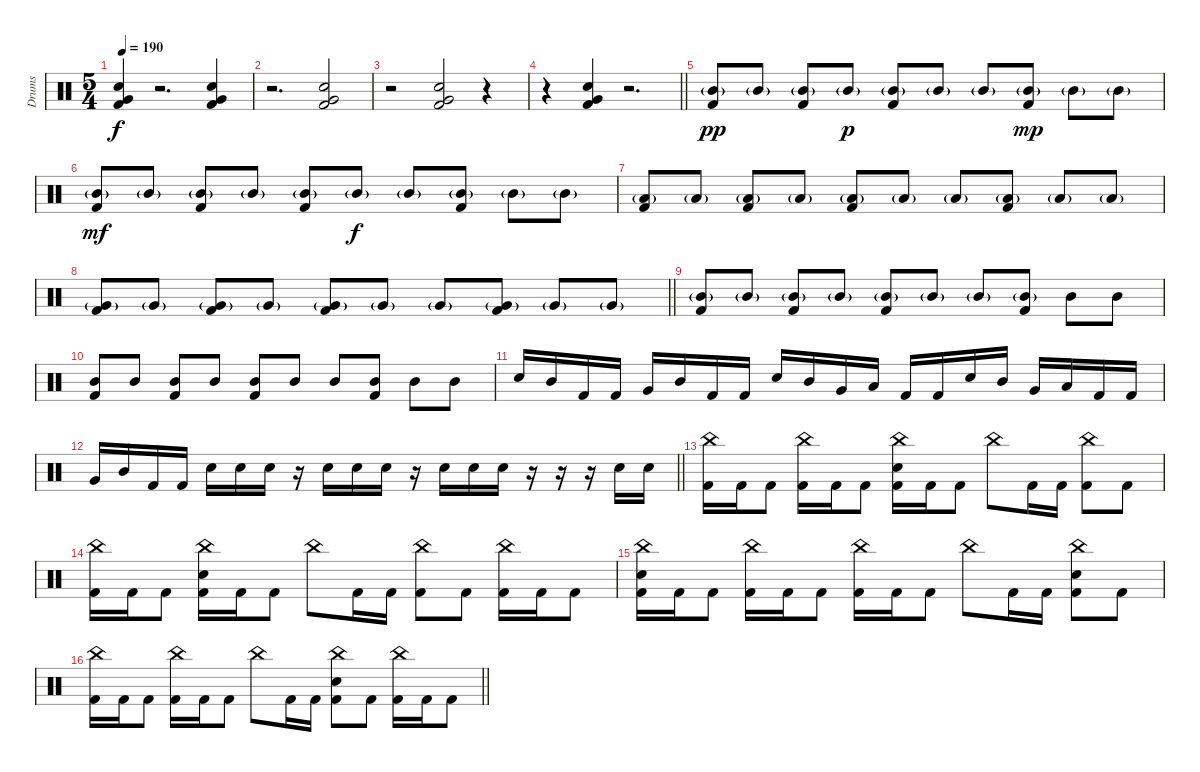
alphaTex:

\track ("Drums" "Drums") {instrument percussion}
\staff {score}
\articulation defaults
\ts (5 4)
\tempo 190
\clef neutral
\ks c
("Electric Snare (hit)" "Very Low Tom (hit)" "Kick (hit) 2").4{dy f} r.2{d} ("Electric Snare (hit)" "Very Low Tom (hit)" "Kick (hit) 2").4 |
r.2{d} ("Electric Snare (hit)" "Very Low Tom (hit)" "Kick (hit) 2").2 |
r.2 ("Electric Snare (hit)" "Very Low Tom (hit)" "Kick (hit) 2").2 r.4 |
\barLineRight lightlight
r.4 ("Electric Snare (hit)" "Very Low Tom (hit)" "Kick (hit) 2").4 r.2{d} |
("Mid Tom (hit)"{g} "Kick (hit) 2").8{dy pp volume 13} "Mid Tom (hit)"{g}.8 ("Mid Tom (hit)"{g} "Kick (hit) 2").8 "Mid Tom (hit)"{g}.8{dy p} ("Mid Tom (hit)"{g} "Kick (hit) 2").8 "Mid Tom (hit)"{g}.8 "Mid Tom (hit)"{g}.8 ("Mid Tom (hit)"{g} "Kick (hit) 2").8{dy mp} "Mid Tom (hit)"{g}.8 "Mid Tom (hit)"{g}.8 |
("Mid Tom (hit)"{g} "Kick (hit) 2").8{dy mf} "Mid Tom (hit)"{g}.8 ("Mid Tom (hit)"{g} "Kick (hit) 2").8 "Mid Tom (hit)"{g}.8 ("Mid Tom (hit)"{g} "Kick (hit) 2").8 "Mid Tom (hit)"{g}.8{dy f} "Mid Tom (hit)"{g}.8 ("Mid Tom (hit)"{g} "Kick (hit) 2").8 "Mid Tom (hit)"{g}.8 "Mid Tom (hit)"{g}.8 |
("Low Tom (hit)"{g} "Kick (hit) 2").8 "Low Tom (hit)"{g}.8 ("Low Tom (hit)"{g} "Kick (hit) 2").8 "Low Tom (hit)"{g}.8 ("Low Tom (hit)"{g} "Kick (hit) 2").8 "Low Tom (hit)"{g}.8 "Low Tom (hit)"{g}.8 ("Low Tom (hit)"{g} "Kick (hit) 2").8 "Low Tom (hit)"{g}.8 "Low Tom (hit)"{g}.8 |
\barLineRight lightlight
("Very Low Tom (hit)"{g} "Kick (hit) 2").8 "Very Low Tom (hit)"{g}.8 ("Very Low Tom (hit)"{g} "Kick (hit) 2").8 "Very Low Tom (hit)"{g}.8 ("Very Low Tom (hit)"{g} "Kick (hit) 2").8 "Very Low Tom (hit)"{g}.8 "Very Low Tom (hit)"{g}.8 ("Very Low Tom (hit)"{g} "Kick (hit) 2").8 "Very Low Tom (hit)"{g}.8 "Very Low Tom (hit)"{g}.8 |
("Mid Tom (hit)"{g} "Kick (hit) 2").8 "Mid Tom (hit)"{g}.8 ("Mid Tom (hit)"{g} "Kick (hit) 2").8 "Mid Tom (hit)"{g}.8 ("Mid Tom (hit)"{g} "Kick (hit) 2").8 "Mid Tom (hit)"{g}.8 "Mid Tom (hit)"{g}.8 ("Mid Tom (hit)"{g} "Kick (hit) 2").8 "Mid Tom (hit)".8 "Mid Tom (hit)".8 |
("Mid Tom (hit)" "Kick (hit) 2").8 "Mid Tom (hit)".8 ("Mid Tom (hit)" "Kick (hit) 2").8 "Mid Tom (hit)".8 ("Mid Tom (hit)" "Kick (hit) 2").8 "Mid Tom (hit)".8 "Mid Tom (hit)".8 ("Mid Tom (hit)" "Kick (hit) 2").8 "Mid Tom (hit)".8 "Mid Tom (hit)".8 |
"Electric Snare (hit)".16 "Mid Tom (hit)".16 "Kick (hit) 2".16 "Kick (hit) 2".16 "Very Low Tom (hit)".16 "Mid Tom (hit)".16 "Kick (hit) 2".16 "Kick (hit) 2".16 "Electric Snare (hit)".16 "Mid Tom (hit)".16 "Very Low Tom (hit)".16 "Low Tom (hit)".16 "Kick (hit) 2".16 "Kick (hit) 2".16 "Electric Snare (hit)".16 "Mid Tom (hit)".16 "Very Low Tom (hit)".16 "Low Tom (hit)".16 "Kick (hit) 2".16 "Kick (hit) 2".16 |
\barLineRight lightlight "Very Low Tom (hit)".16 "Mid Tom (hit)".16 "Kick (hit) 2".16 "Kick (hit) 2".16 "Electric Snare (hit)".16 "Electric Snare (hit)".16 "Electric Snare (hit)".16
r.16 "Electric Snare (hit)".16 "Electric Snare (hit)".16 "Electric Snare (hit)".16 r.16 "Electric Snare (hit)".16 "Electric Snare (hit)".16 "Electric Snare (hit)".16 r.16 r.16 r.16 "Electric Snare (hit)".16 "Electric Snare (hit)".16 |
("China (hit)" "Kick (hit) 2").16 "Kick (hit) 2".16 "Kick (hit) 2".8 ("China (hit)" "Kick (hit) 2").16 "Kick (hit) 2".16 "Kick (hit) 2".8 ("China (hit)" "Electric Snare (hit)" "Kick (hit) 2").16 "Kick (hit) 2".16 "Kick (hit) 2".8 "China (hit)".8 "Kick (hit) 2".16 "Kick (hit) 2".16 ("China (hit)" "Kick (hit) 2").8 "Kick (hit) 2".8 |
("China (hit)" "Kick (hit) 2").16 "Kick (hit) 2".16 "Kick (hit) 2".8 ("China (hit)" "Electric Snare (hit)" "Kick (hit) 2").16 "Kick (hit) 2".16 "Kick (hit) 2".8 "China (hit)".8 "Kick (hit) 2".16 "Kick (hit) 2".16 ("China (hit)" "Kick (hit) 2").8 "Kick (hit) 2".8 ("China (hit)" "Kick (hit) 2").16 "Kick (hit) 2".16 "Kick (hit) 2".8 |
("China (hit)" "Electric Snare (hit)" "Kick (hit) 2").16 "Kick (hit) 2".16 "Kick (hit) 2".8 ("China (hit)" "Kick (hit) 2").16 "Kick (hit) 2".16 "Kick (hit) 2".8 ("China (hit)" "Kick (hit) 2").16 "Kick (hit) 2".16 "Kick (hit) 2".8 "China (hit)".8 "Kick (hit) 2".16 "Kick (hit) 2".16 ("China (hit)" "Electric Snare (hit)" "Kick (hit) 2").8 "Kick (hit) 2".8 |
\barLineRight lightlight
("China (hit)" "Kick (hit) 2").16 "Kick (hit) 2".16 "Kick (hit) 2".8 ("China (hit)" "Kick (hit) 2").16 "Kick (hit) 2".16 "Kick (hit) 2".8 "China (hit)".8 "Kick (hit) 2".16 "Kick (hit) 2".16 ("China (hit)" "Electric Snare (hit)" "Kick (hit) 2").8 "Kick (hit) 2".8 ("China (hit)" "Kick (hit) 2").16 "Kick (hit) 2".16 "Kick (hit) 2".8
